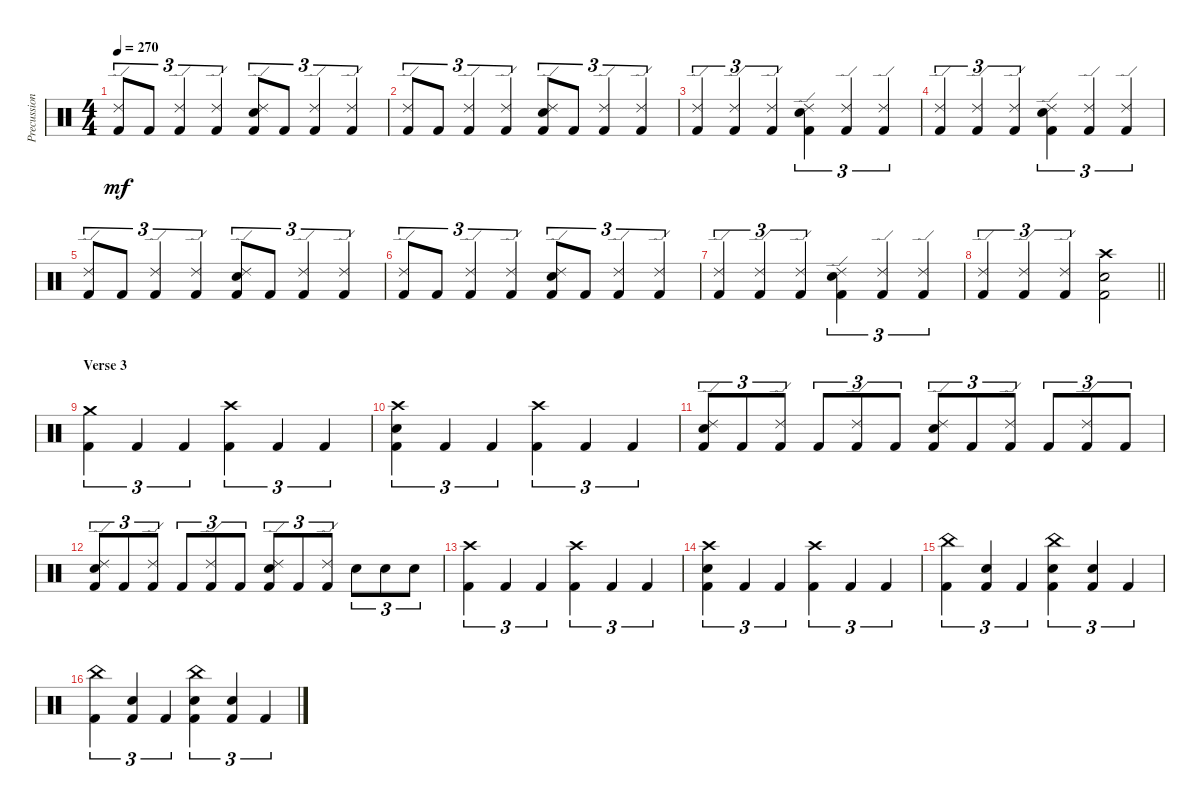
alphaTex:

\track ("Precussion" "Precussion") {instrument percussion}
\staff {score}
\articulation defaults
\ts (4 4)
\tempo 270
\clef neutral
\ks c
("Ride (edge) 2" "Kick (hit) 2").8{tu (3 2) dy mf} "Kick (hit) 2".8{tu (3 2)} ("Ride (edge) 2" "Kick (hit) 2").4{tu (3 2)} ("Ride (edge) 2" "Kick (hit) 2").4{tu (3 2)} ("Ride (edge) 2" "Electric Snare (hit)" "Kick (hit) 2").8{tu (3 2)} "Kick (hit) 2".8{tu (3 2)} ("Ride (edge) 2" "Kick (hit) 2").4{tu (3 2)} ("Ride (edge) 2" "Kick (hit) 2").4{tu (3 2)} |
("Ride (edge) 2" "Kick (hit) 2").8{tu (3 2)} "Kick (hit) 2".8{tu (3 2)} ("Ride (edge) 2" "Kick (hit) 2").4{tu (3 2)} ("Ride (edge) 2" "Kick (hit) 2").4{tu (3 2)} ("Ride (edge) 2" "Electric Snare (hit)" "Kick (hit) 2").8{tu (3 2)} "Kick (hit) 2".8{tu (3 2)} ("Ride (edge) 2" "Kick (hit) 2").4{tu (3 2)} ("Ride (edge) 2" "Kick (hit) 2").4{tu (3 2)} |
("Ride (edge) 2" "Kick (hit) 2").4{tu (3 2)} ("Ride (edge) 2" "Kick (hit) 2").4{tu (3 2)} ("Ride (edge) 2" "Kick (hit) 2").4{tu (3 2)} ("Ride (edge) 2" "Electric Snare (hit)" "Kick (hit) 2").4{tu (3 2)} ("Ride (edge) 2" "Kick (hit) 2").4{tu (3 2)} ("Ride (edge) 2" "Kick (hit) 2").4{tu (3 2)} |
("Ride (edge) 2" "Kick (hit) 2").4{tu (3 2)} ("Ride (edge) 2" "Kick (hit) 2").4{tu (3 2)} ("Ride (edge) 2" "Kick (hit) 2").4{tu (3 2)} ("Ride (edge) 2" "Electric Snare (hit)" "Kick (hit) 2").4{tu (3 2)} ("Ride (edge) 2" "Kick (hit) 2").4{tu (3 2)} ("Ride (edge) 2" "Kick (hit) 2").4{tu (3 2)} |
("Ride (edge) 2" "Kick (hit) 2").8{tu (3 2)} "Kick (hit) 2".8{tu (3 2)} ("Ride (edge) 2" "Kick (hit) 2").4{tu (3 2)} ("Ride (edge) 2" "Kick (hit) 2").4{tu (3 2)} ("Ride (edge) 2" "Electric Snare (hit)" "Kick (hit) 2").8{tu (3 2)} "Kick (hit) 2".8{tu (3 2)} ("Ride (edge) 2" "Kick (hit) 2").4{tu (3 2)} ("Ride (edge) 2" "Kick (hit) 2").4{tu (3 2)} |
("Ride (edge) 2" "Kick (hit) 2").8{tu (3 2)} "Kick (hit) 2".8{tu (3 2)} ("Ride (edge) 2" "Kick (hit) 2").4{tu (3 2)} ("Ride (edge) 2" "Kick (hit) 2").4{tu (3 2)} ("Ride (edge) 2" "Electric Snare (hit)" "Kick (hit) 2").8{tu (3 2)} "Kick (hit) 2".8{tu (3 2)} ("Ride (edge) 2" "Kick (hit) 2").4{tu (3 2)} ("Ride (edge) 2" "Kick (hit) 2").4{tu (3 2)} |
("Ride (edge) 2" "Kick (hit) 2").4{tu (3 2)} ("Ride (edge) 2" "Kick (hit) 2").4{tu (3 2)} ("Ride (edge) 2" "Kick (hit) 2").4{tu (3 2)} ("Ride (edge) 2" "Electric Snare (hit)" "Kick (hit) 2").4{tu (3 2)} ("Ride (edge) 2" "Kick (hit) 2").4{tu (3 2)} ("Ride (edge) 2" "Kick (hit) 2").4{tu (3 2)} |
\barLineRight lightlight
("Ride (edge) 2" "Kick (hit) 2").4{tu (3 2)} ("Ride (edge) 2" "Kick (hit) 2").4{tu (3 2)} ("Ride (edge) 2" "Kick (hit) 2").4{tu (3 2)} ("Crash high (hit)" "Electric Snare (hit)" "Kick (hit) 2").2 |
\section ("" "Verse 3")
("Crash medium (hit)" "Kick (hit) 2").4{tu (3 2)} "Kick (hit) 2".4{tu (3 2)} "Kick (hit) 2".4{tu (3 2)} ("Crash high (hit)" "Kick (hit) 2").4{tu (3 2)} "Kick (hit) 2".4{tu (3 2)} "Kick (hit) 2".4{tu (3 2)} |
("Crash high (hit)" "Electric Snare (hit)" "Kick (hit) 2").4{tu (3 2)} "Kick (hit) 2".4{tu (3 2)} "Kick (hit) 2".4{tu (3 2)} ("Crash high (hit)" "Kick (hit) 2").4{tu (3 2)} "Kick (hit) 2".4{tu (3 2)} "Kick (hit) 2".4{tu (3 2)} |
("Ride (edge) 2" "Electric Snare (hit)" "Kick (hit) 2").8{tu (3 2)} "Kick (hit) 2".8{tu (3 2)} ("Ride (edge) 2" "Kick (hit) 2").8{tu (3 2)} "Kick (hit) 2".8{tu (3 2)} ("Ride (edge) 2" "Kick (hit) 2").8{tu (3 2)} "Kick (hit) 2".8{tu (3 2)} ("Ride (edge) 2" "Electric Snare (hit)" "Kick (hit) 2").8{tu (3 2)} "Kick (hit) 2".8{tu (3 2)} ("Ride (edge) 2" "Kick (hit) 2").8{tu (3 2)} "Kick (hit) 2".8{tu (3 2)} ("Ride (edge) 2" "Kick (hit) 2").8{tu (3 2)} "Kick (hit) 2".8{tu (3 2)} |
("Ride (edge) 2" "Electric Snare (hit)" "Kick (hit) 2").8{tu (3 2)} "Kick (hit) 2".8{tu (3 2)} ("Ride (edge) 2" "Kick (hit) 2").8{tu (3 2)} "Kick (hit) 2".8{tu (3 2)} ("Ride (edge) 2" "Kick (hit) 2").8{tu (3 2)} "Kick (hit) 2".8{tu (3 2)} ("Ride (edge) 2" "Electric Snare (hit)" "Kick (hit) 2").8{tu (3 2)} "Kick (hit) 2".8{tu (3 2)} ("Ride (edge) 2" "Kick (hit) 2").8{tu (3 2)} "Electric Snare (hit)".8{tu (3 2)} "Electric Snare (hit)".8{tu (3 2)} "Electric Snare (hit)".8{tu (3 2)} |
("Crash high (hit)" "Kick (hit) 2").4{tu (3 2)} "Kick (hit) 2".4{tu (3 2)} "Kick (hit) 2".4{tu (3 2)} ("Crash high (hit)" "Kick (hit) 2").4{tu (3 2)} "Kick (hit) 2".4{tu (3 2)} "Kick (hit) 2".4{tu (3 2)} |
("Crash high (hit)" "Electric Snare (hit)" "Kick (hit) 2").4{tu (3 2)} "Kick (hit) 2".4{tu (3 2)} "Kick (hit) 2".4{tu (3 2)} ("Crash high (hit)" "Kick (hit) 2").4{tu (3 2)} "Kick (hit) 2".4{tu (3 2)} "Kick (hit) 2".4{tu (3 2)} |
("China (hit)" "Kick (hit) 2").4{tu (3 2)} ("Electric Snare (hit)" "Kick (hit) 2").4{tu (3 2)} "Kick (hit) 2".4{tu (3 2)} ("China (hit)" "Electric Snare (hit)" "Kick (hit) 2").4{tu (3 2)} ("Electric Snare (hit)" "Kick (hit) 2").4{tu (3 2)} "Kick (hit) 2".4{tu (3 2)} |
("China (hit)" "Kick (hit) 2").4{tu (3 2)} ("Electric Snare (hit)" "Kick (hit) 2").4{tu (3 2)} "Kick (hit) 2".4{tu (3 2)} ("China (hit)" "Electric Snare (hit)" "Kick (hit) 2").4{tu (3 2)} ("Electric Snare (hit)" "Kick (hit) 2").4{tu (3 2)} "Kick (hit) 2".4{tu (3 2)}
